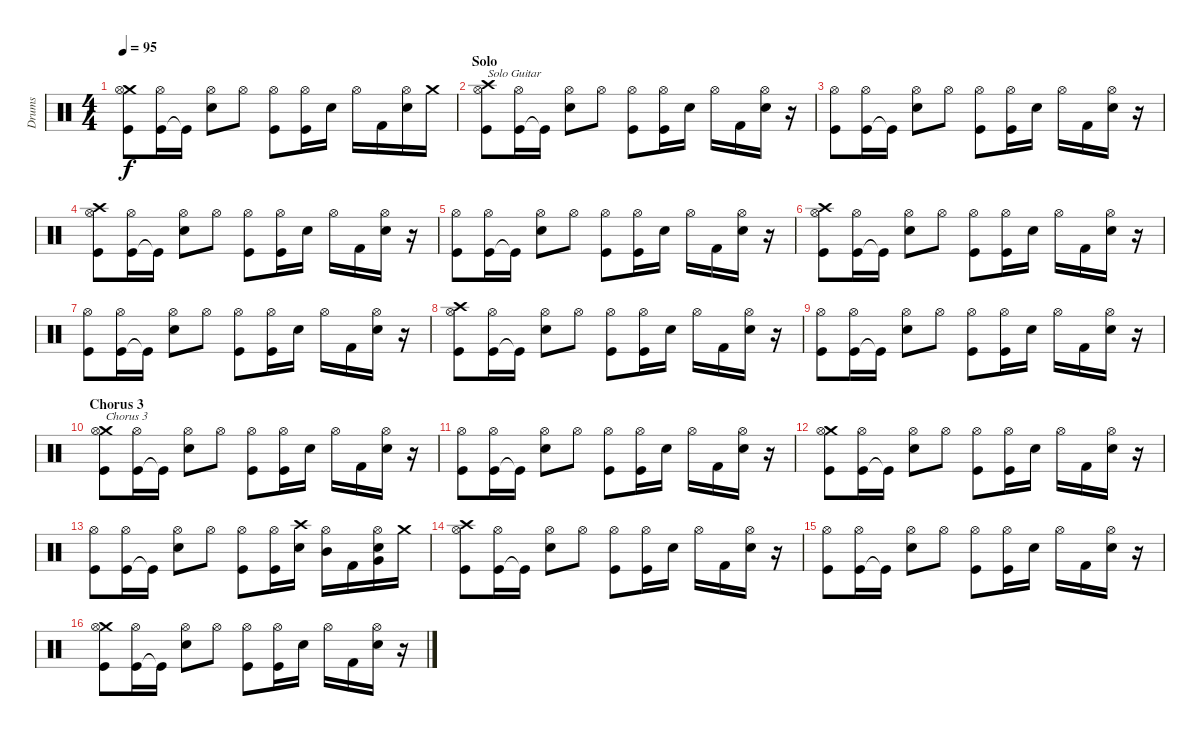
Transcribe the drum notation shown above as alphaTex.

\track ("Drums" "Drums") {instrument percussion}
\staff {score}
\articulation defaults
\ts (4 4)
\tempo 95
\clef neutral
\ks c
("Crash medium (hit)" "Kick (hit)" "Hi-Hat (open)").8{dy f} ("Kick (hit)" "Hi-Hat (open)").16 "Kick (hit)"{t}.16 ("Snare (hit) 2" "Hi-Hat (open)").8 "Hi-Hat (open)".8 ("Kick (hit)" "Hi-Hat (open)").8 ("Kick (hit)" "Hi-Hat (open)").16 "Snare (hit) 2".16 "Hi-Hat (open)".16 "Kick (hit) 2".16 ("Snare (hit) 2" "Hi-Hat (open)").16 "Crash medium (hit)".16 |
\section ("" "Solo")
("Crash high (hit)" "Kick (hit)" "Hi-Hat (open)").8{txt "Solo Guitar"} ("Kick (hit)" "Hi-Hat (open)").16 "Kick (hit)"{t}.16 ("Snare (hit) 2" "Hi-Hat (open)").8 "Hi-Hat (open)".8 ("Kick (hit)" "Hi-Hat (open)").8 ("Kick (hit)" "Hi-Hat (open)").16 "Snare (hit) 2".16 "Hi-Hat (open)".16 "Kick (hit) 2".16 ("Snare (hit) 2" "Hi-Hat (open)").16 r.16 |
("Kick (hit)" "Hi-Hat (open)").8 ("Kick (hit)" "Hi-Hat (open)").16 "Kick (hit)"{t}.16 ("Snare (hit) 2" "Hi-Hat (open)").8 "Hi-Hat (open)".8 ("Kick (hit)" "Hi-Hat (open)").8 ("Kick (hit)" "Hi-Hat (open)").16 "Snare (hit) 2".16 "Hi-Hat (open)".16 "Kick (hit) 2".16 ("Snare (hit) 2" "Hi-Hat (open)").16 r.16 |
("Crash high (hit)" "Kick (hit)" "Hi-Hat (open)").8 ("Kick (hit)" "Hi-Hat (open)").16 "Kick (hit)"{t}.16 ("Snare (hit) 2" "Hi-Hat (open)").8 "Hi-Hat (open)".8 ("Kick (hit)" "Hi-Hat (open)").8 ("Kick (hit)" "Hi-Hat (open)").16 "Snare (hit) 2".16 "Hi-Hat (open)".16 "Kick (hit) 2".16 ("Snare (hit) 2" "Hi-Hat (open)").16 r.16 |
("Kick (hit)" "Hi-Hat (open)").8 ("Kick (hit)" "Hi-Hat (open)").16 "Kick (hit)"{t}.16 ("Snare (hit) 2" "Hi-Hat (open)").8 "Hi-Hat (open)".8 ("Kick (hit)" "Hi-Hat (open)").8 ("Kick (hit)" "Hi-Hat (open)").16 "Snare (hit) 2".16 "Hi-Hat (open)".16 "Kick (hit) 2".16 ("Snare (hit) 2" "Hi-Hat (open)").16 r.16 |
("Crash high (hit)" "Kick (hit)" "Hi-Hat (open)").8 ("Kick (hit)" "Hi-Hat (open)").16 "Kick (hit)"{t}.16 ("Snare (hit) 2" "Hi-Hat (open)").8 "Hi-Hat (open)".8 ("Kick (hit)" "Hi-Hat (open)").8 ("Kick (hit)" "Hi-Hat (open)").16 "Snare (hit) 2".16 "Hi-Hat (open)".16 "Kick (hit) 2".16 ("Snare (hit) 2" "Hi-Hat (open)").16 r.16 |
("Kick (hit)" "Hi-Hat (open)").8 ("Kick (hit)" "Hi-Hat (open)").16 "Kick (hit)"{t}.16 ("Snare (hit) 2" "Hi-Hat (open)").8 "Hi-Hat (open)".8 ("Kick (hit)" "Hi-Hat (open)").8 ("Kick (hit)" "Hi-Hat (open)").16 "Snare (hit) 2".16 "Hi-Hat (open)".16 "Kick (hit) 2".16 ("Snare (hit) 2" "Hi-Hat (open)").16 r.16 |
("Crash high (hit)" "Kick (hit)" "Hi-Hat (open)").8 ("Kick (hit)" "Hi-Hat (open)").16 "Kick (hit)"{t}.16 ("Snare (hit) 2" "Hi-Hat (open)").8 "Hi-Hat (open)".8 ("Kick (hit)" "Hi-Hat (open)").8 ("Kick (hit)" "Hi-Hat (open)").16 "Snare (hit) 2".16 "Hi-Hat (open)".16 "Kick (hit) 2".16 ("Snare (hit) 2" "Hi-Hat (open)").16 r.16 |
("Kick (hit)" "Hi-Hat (open)").8 ("Kick (hit)" "Hi-Hat (open)").16 "Kick (hit)"{t}.16 ("Snare (hit) 2" "Hi-Hat (open)").8 "Hi-Hat (open)".8 ("Kick (hit)" "Hi-Hat (open)").8 ("Kick (hit)" "Hi-Hat (open)").16 "Snare (hit) 2".16 "Hi-Hat (open)".16 "Kick (hit) 2".16 ("Snare (hit) 2" "Hi-Hat (open)").16 r.16 |
\section ("" "Chorus 3")
("Crash medium (hit)" "Kick (hit)" "Hi-Hat (open)").8{txt "Chorus 3"} ("Kick (hit)" "Hi-Hat (open)").16 "Kick (hit)"{t}.16 ("Snare (hit) 2" "Hi-Hat (open)").8 "Hi-Hat (open)".8 ("Kick (hit)" "Hi-Hat (open)").8 ("Kick (hit)" "Hi-Hat (open)").16 "Snare (hit) 2".16 "Hi-Hat (open)".16 "Kick (hit) 2".16 ("Snare (hit) 2" "Hi-Hat (open)").16 r.16 |
("Kick (hit)" "Hi-Hat (open)").8 ("Kick (hit)" "Hi-Hat (open)").16 "Kick (hit)"{t}.16 ("Snare (hit) 2" "Hi-Hat (open)").8 "Hi-Hat (open)".8 ("Kick (hit)" "Hi-Hat (open)").8 ("Kick (hit)" "Hi-Hat (open)").16 "Snare (hit) 2".16 "Hi-Hat (open)".16 "Kick (hit) 2".16 ("Snare (hit) 2" "Hi-Hat (open)").16 r.16 |
("Crash medium (hit)" "Kick (hit)" "Hi-Hat (open)").8 ("Kick (hit)" "Hi-Hat (open)").16 "Kick (hit)"{t}.16 ("Snare (hit) 2" "Hi-Hat (open)").8 "Hi-Hat (open)".8 ("Kick (hit)" "Hi-Hat (open)").8 ("Kick (hit)" "Hi-Hat (open)").16 "Snare (hit) 2".16 "Hi-Hat (open)".16 "Kick (hit) 2".16 ("Snare (hit) 2" "Hi-Hat (open)").16 r.16 |
("Kick (hit)" "Hi-Hat (open)").8 ("Kick (hit)" "Hi-Hat (open)").16 "Kick (hit)"{t}.16 ("Snare (hit) 2" "Hi-Hat (open)").8 "Hi-Hat (open)".8 ("Kick (hit)" "Hi-Hat (open)").8 ("Kick (hit)" "Hi-Hat (open)").16 ("Crash high (hit)" "Snare (hit) 2").16 ("Mid Tom (hit)" "Hi-Hat (open)").16 "Kick (hit) 2".16 ("Very Low Tom (hit)" "Snare (hit) 2" "Hi-Hat (open)").16 "Crash medium (hit)".16 |
("Crash high (hit)" "Kick (hit)" "Hi-Hat (open)").8 ("Kick (hit)" "Hi-Hat (open)").16 "Kick (hit)"{t}.16 ("Snare (hit) 2" "Hi-Hat (open)").8 "Hi-Hat (open)".8 ("Kick (hit)" "Hi-Hat (open)").8 ("Kick (hit)" "Hi-Hat (open)").16 "Snare (hit) 2".16 "Hi-Hat (open)".16 "Kick (hit) 2".16 ("Snare (hit) 2" "Hi-Hat (open)").16 r.16 |
("Kick (hit)" "Hi-Hat (open)").8 ("Kick (hit)" "Hi-Hat (open)").16 "Kick (hit)"{t}.16 ("Snare (hit) 2" "Hi-Hat (open)").8 "Hi-Hat (open)".8 ("Kick (hit)" "Hi-Hat (open)").8 ("Kick (hit)" "Hi-Hat (open)").16 "Snare (hit) 2".16 "Hi-Hat (open)".16 "Kick (hit) 2".16 ("Snare (hit) 2" "Hi-Hat (open)").16 r.16 |
("Crash medium (hit)" "Kick (hit)" "Hi-Hat (open)").8 ("Kick (hit)" "Hi-Hat (open)").16 "Kick (hit)"{t}.16 ("Snare (hit) 2" "Hi-Hat (open)").8 "Hi-Hat (open)".8 ("Kick (hit)" "Hi-Hat (open)").8 ("Kick (hit)" "Hi-Hat (open)").16 "Snare (hit) 2".16 "Hi-Hat (open)".16 "Kick (hit) 2".16 ("Snare (hit) 2" "Hi-Hat (open)").16 r.16
